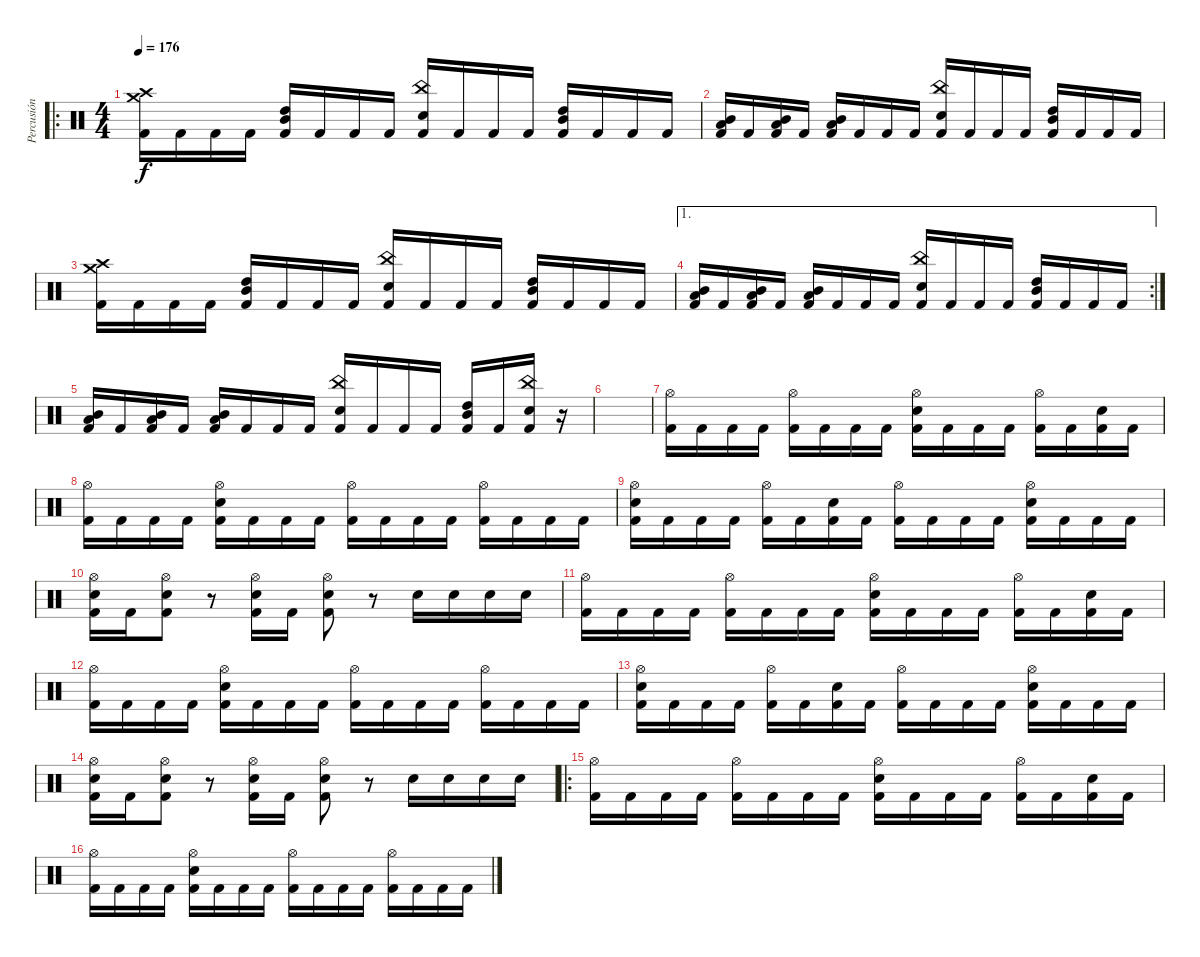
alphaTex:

\track ("Percusión" "Percusión") {instrument percussion}
\staff {score}
\articulation defaults
\ro
\ts (4 4)
\tempo 176
\clef neutral
\ks c
("Crash medium (hit)" "Crash high (hit)" "Kick (hit) 2").16{dy f} "Kick (hit) 2".16 "Kick (hit) 2".16 "Kick (hit) 2".16 ("High Tom (hit)" "Mid Tom (hit)" "Kick (hit) 2").16 "Kick (hit) 2".16 "Kick (hit) 2".16 "Kick (hit) 2".16 ("China (hit)" "Electric Snare (hit)" "Kick (hit) 2").16 "Kick (hit) 2".16 "Kick (hit) 2".16 "Kick (hit) 2".16 ("High Tom (hit)" "Mid Tom (hit)" "Kick (hit) 2").16 "Kick (hit) 2".16 "Kick (hit) 2".16 "Kick (hit) 2".16 |
("Low Tom (hit)" "Mid Tom (hit)" "Kick (hit) 2").16 "Kick (hit) 2".16 ("Low Tom (hit)" "Mid Tom (hit)" "Kick (hit) 2").16 "Kick (hit) 2".16 ("Low Tom (hit)" "Mid Tom (hit)" "Kick (hit) 2").16 "Kick (hit) 2".16 "Kick (hit) 2".16 "Kick (hit) 2".16 ("China (hit)" "Electric Snare (hit)" "Kick (hit) 2").16 "Kick (hit) 2".16 "Kick (hit) 2".16 "Kick (hit) 2".16 ("Mid Tom (hit)" "High Tom (hit)" "Kick (hit) 2").16 "Kick (hit) 2".16 "Kick (hit) 2".16 "Kick (hit) 2".16 |
("Crash medium (hit)" "Crash high (hit)" "Kick (hit) 2").16 "Kick (hit) 2".16 "Kick (hit) 2".16 "Kick (hit) 2".16 ("High Tom (hit)" "Mid Tom (hit)" "Kick (hit) 2").16 "Kick (hit) 2".16 "Kick (hit) 2".16 "Kick (hit) 2".16 ("China (hit)" "Electric Snare (hit)" "Kick (hit) 2").16 "Kick (hit) 2".16 "Kick (hit) 2".16 "Kick (hit) 2".16 ("High Tom (hit)" "Mid Tom (hit)" "Kick (hit) 2").16 "Kick (hit) 2".16 "Kick (hit) 2".16 "Kick (hit) 2".16 |
\ae 1
\rc 2
("Low Tom (hit)" "Mid Tom (hit)" "Kick (hit) 2").16 "Kick (hit) 2".16 ("Low Tom (hit)" "Mid Tom (hit)" "Kick (hit) 2").16 "Kick (hit) 2".16 ("Low Tom (hit)" "Mid Tom (hit)" "Kick (hit) 2").16 "Kick (hit) 2".16 "Kick (hit) 2".16 "Kick (hit) 2".16 ("China (hit)" "Electric Snare (hit)" "Kick (hit) 2").16 "Kick (hit) 2".16 "Kick (hit) 2".16 "Kick (hit) 2".16 ("Mid Tom (hit)" "High Tom (hit)" "Kick (hit) 2").16 "Kick (hit) 2".16 "Kick (hit) 2".16 "Kick (hit) 2".16 |
("Low Tom (hit)" "Mid Tom (hit)" "Kick (hit) 2").16 "Kick (hit) 2".16 ("Low Tom (hit)" "Mid Tom (hit)" "Kick (hit) 2").16 "Kick (hit) 2".16 ("Low Tom (hit)" "Mid Tom (hit)" "Kick (hit) 2").16 "Kick (hit) 2".16 "Kick (hit) 2".16 "Kick (hit) 2".16 ("China (hit)" "Electric Snare (hit)" "Kick (hit) 2").16 "Kick (hit) 2".16 "Kick (hit) 2".16 "Kick (hit) 2".16 ("Mid Tom (hit)" "High Tom (hit)" "Kick (hit) 2").16 "Kick (hit) 2".16 ("China (hit)" "Electric Snare (hit)" "Kick (hit) 2").16 r.16 |
|
("Hi-Hat (open)" "Kick (hit) 2").16 "Kick (hit) 2".16 "Kick (hit) 2".16 "Kick (hit) 2".16 ("Hi-Hat (open)" "Kick (hit) 2").16 "Kick (hit) 2".16 "Kick (hit) 2".16 "Kick (hit) 2".16 ("Hi-Hat (open)" "Electric Snare (hit)" "Kick (hit) 2").16 "Kick (hit) 2".16 "Kick (hit) 2".16 "Kick (hit) 2".16 ("Hi-Hat (open)" "Kick (hit) 2").16 "Kick (hit) 2".16 ("Electric Snare (hit)" "Kick (hit) 2").16 "Kick (hit) 2".16 |
("Hi-Hat (open)" "Kick (hit) 2").16 "Kick (hit) 2".16 "Kick (hit) 2".16 "Kick (hit) 2".16 ("Hi-Hat (open)" "Electric Snare (hit)" "Kick (hit) 2").16 "Kick (hit) 2".16 "Kick (hit) 2".16 "Kick (hit) 2".16 ("Hi-Hat (open)" "Kick (hit) 2").16 "Kick (hit) 2".16 "Kick (hit) 2".16 "Kick (hit) 2".16 ("Hi-Hat (open)" "Kick (hit) 2").16 "Kick (hit) 2".16 "Kick (hit) 2".16 "Kick (hit) 2".16 |
("Hi-Hat (open)" "Electric Snare (hit)" "Kick (hit) 2").16 "Kick (hit) 2".16 "Kick (hit) 2".16 "Kick (hit) 2".16 ("Hi-Hat (open)" "Kick (hit) 2").16 "Kick (hit) 2".16 ("Electric Snare (hit)" "Kick (hit) 2").16 "Kick (hit) 2".16 ("Hi-Hat (open)" "Kick (hit) 2").16 "Kick (hit) 2".16 "Kick (hit) 2".16 "Kick (hit) 2".16 ("Hi-Hat (open)" "Electric Snare (hit)" "Kick (hit) 2").16 "Kick (hit) 2".16 "Kick (hit) 2".16 "Kick (hit) 2".16 |
("Hi-Hat (open)" "Electric Snare (hit)" "Kick (hit) 2").16 "Kick (hit) 2".16 ("Hi-Hat (open)" "Electric Snare (hit)" "Kick (hit) 2").8 r.8 ("Hi-Hat (open)" "Electric Snare (hit)" "Kick (hit) 2").16 "Kick (hit) 2".16 ("Hi-Hat (open)" "Electric Snare (hit)" "Kick (hit) 2").8 r.8 "Electric Snare (hit)".16 "Electric Snare (hit)".16 "Electric Snare (hit)".16 "Electric Snare (hit)".16 |
("Hi-Hat (open)" "Kick (hit) 2").16 "Kick (hit) 2".16 "Kick (hit) 2".16 "Kick (hit) 2".16 ("Hi-Hat (open)" "Kick (hit) 2").16 "Kick (hit) 2".16 "Kick (hit) 2".16 "Kick (hit) 2".16 ("Hi-Hat (open)" "Electric Snare (hit)" "Kick (hit) 2").16 "Kick (hit) 2".16 "Kick (hit) 2".16 "Kick (hit) 2".16 ("Hi-Hat (open)" "Kick (hit) 2").16 "Kick (hit) 2".16 ("Electric Snare (hit)" "Kick (hit) 2").16 "Kick (hit) 2".16 |
("Hi-Hat (open)" "Kick (hit) 2").16 "Kick (hit) 2".16 "Kick (hit) 2".16 "Kick (hit) 2".16 ("Hi-Hat (open)" "Electric Snare (hit)" "Kick (hit) 2").16 "Kick (hit) 2".16 "Kick (hit) 2".16 "Kick (hit) 2".16 ("Hi-Hat (open)" "Kick (hit) 2").16 "Kick (hit) 2".16 "Kick (hit) 2".16 "Kick (hit) 2".16 ("Hi-Hat (open)" "Kick (hit) 2").16 "Kick (hit) 2".16 "Kick (hit) 2".16 "Kick (hit) 2".16 |
("Hi-Hat (open)" "Electric Snare (hit)" "Kick (hit) 2").16 "Kick (hit) 2".16 "Kick (hit) 2".16 "Kick (hit) 2".16 ("Hi-Hat (open)" "Kick (hit) 2").16 "Kick (hit) 2".16 ("Electric Snare (hit)" "Kick (hit) 2").16 "Kick (hit) 2".16 ("Hi-Hat (open)" "Kick (hit) 2").16 "Kick (hit) 2".16 "Kick (hit) 2".16 "Kick (hit) 2".16 ("Hi-Hat (open)" "Electric Snare (hit)" "Kick (hit) 2").16 "Kick (hit) 2".16 "Kick (hit) 2".16 "Kick (hit) 2".16 |
("Hi-Hat (open)" "Electric Snare (hit)" "Kick (hit) 2").16 "Kick (hit) 2".16 ("Hi-Hat (open)" "Electric Snare (hit)" "Kick (hit) 2").8 r.8 ("Hi-Hat (open)" "Electric Snare (hit)" "Kick (hit) 2").16 "Kick (hit) 2".16 ("Hi-Hat (open)" "Electric Snare (hit)" "Kick (hit) 2").8 r.8 "Electric Snare (hit)".16 "Electric Snare (hit)".16 "Electric Snare (hit)".16 "Electric Snare (hit)".16 |
\ro
("Hi-Hat (open)" "Kick (hit) 2").16 "Kick (hit) 2".16 "Kick (hit) 2".16 "Kick (hit) 2".16 ("Hi-Hat (open)" "Kick (hit) 2").16 "Kick (hit) 2".16 "Kick (hit) 2".16 "Kick (hit) 2".16 ("Hi-Hat (open)" "Electric Snare (hit)" "Kick (hit) 2").16 "Kick (hit) 2".16 "Kick (hit) 2".16 "Kick (hit) 2".16 ("Hi-Hat (open)" "Kick (hit) 2").16 "Kick (hit) 2".16 ("Electric Snare (hit)" "Kick (hit) 2").16 "Kick (hit) 2".16 |
("Hi-Hat (open)" "Kick (hit) 2").16 "Kick (hit) 2".16 "Kick (hit) 2".16 "Kick (hit) 2".16 ("Hi-Hat (open)" "Electric Snare (hit)" "Kick (hit) 2").16 "Kick (hit) 2".16 "Kick (hit) 2".16 "Kick (hit) 2".16 ("Hi-Hat (open)" "Kick (hit) 2").16 "Kick (hit) 2".16 "Kick (hit) 2".16 "Kick (hit) 2".16 ("Hi-Hat (open)" "Kick (hit) 2").16 "Kick (hit) 2".16 "Kick (hit) 2".16 "Kick (hit) 2".16
